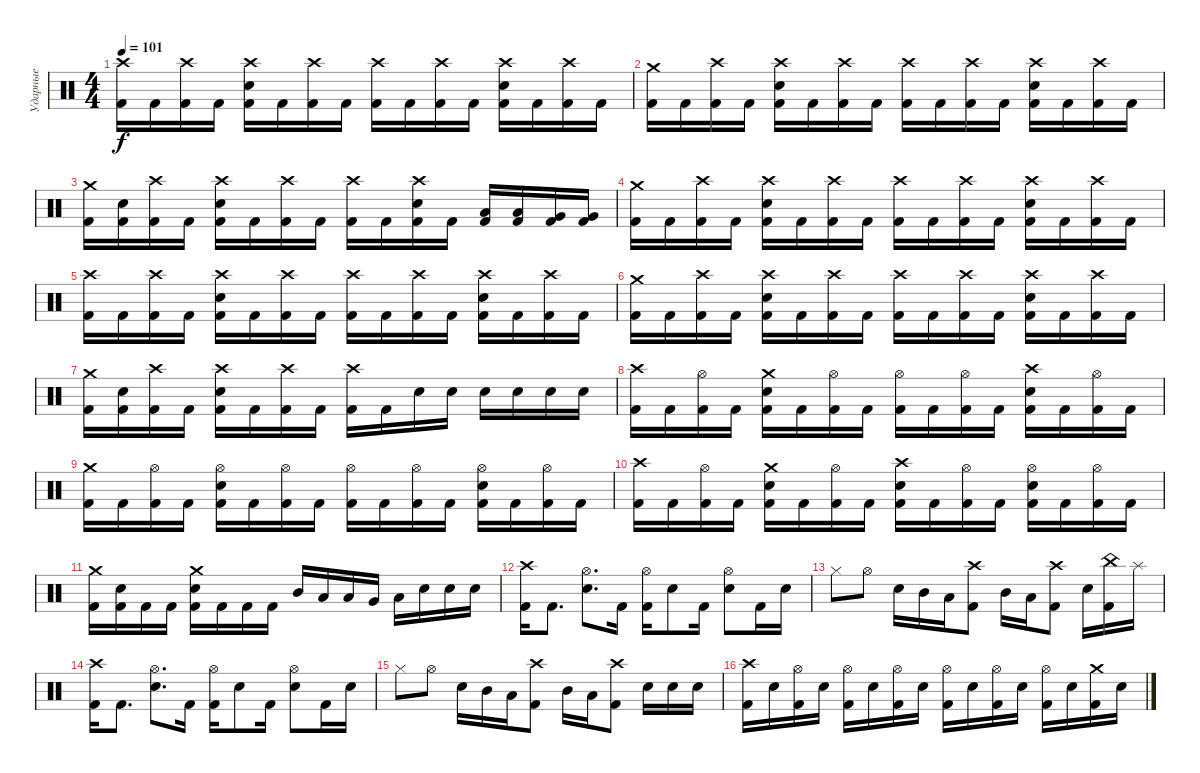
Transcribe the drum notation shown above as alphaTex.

\track ("Ударные" "Ударные") {instrument percussion}
\staff {score}
\articulation defaults
\ts (4 4)
\tempo 101
\clef neutral
\ks c
("Crash high (hit)" "Kick (hit) 2").16{dy f} "Kick (hit) 2".16 ("Crash high (hit)" "Kick (hit) 2").16 "Kick (hit) 2".16 ("Crash high (hit)" "Electric Snare (hit)" "Kick (hit) 2").16 "Kick (hit) 2".16 ("Crash high (hit)" "Kick (hit) 2").16 "Kick (hit) 2".16 ("Crash high (hit)" "Kick (hit) 2").16 "Kick (hit) 2".16 ("Crash high (hit)" "Kick (hit) 2").16 "Kick (hit) 2".16 ("Crash high (hit)" "Electric Snare (hit)" "Kick (hit) 2").16 "Kick (hit) 2".16 ("Crash high (hit)" "Kick (hit) 2").16 "Kick (hit) 2".16 |
("Crash medium (hit)" "Kick (hit) 2").16 "Kick (hit) 2".16 ("Crash high (hit)" "Kick (hit) 2").16 "Kick (hit) 2".16 ("Crash high (hit)" "Electric Snare (hit)" "Kick (hit) 2").16 "Kick (hit) 2".16 ("Crash high (hit)" "Kick (hit) 2").16 "Kick (hit) 2".16 ("Crash high (hit)" "Kick (hit) 2").16 "Kick (hit) 2".16 ("Crash high (hit)" "Kick (hit) 2").16 "Kick (hit) 2".16 ("Crash high (hit)" "Electric Snare (hit)" "Kick (hit) 2").16 "Kick (hit) 2".16 ("Crash high (hit)" "Kick (hit) 2").16 "Kick (hit) 2".16 |
("Crash medium (hit)" "Kick (hit) 2").16 ("Electric Snare (hit)" "Kick (hit) 2").16 ("Crash high (hit)" "Kick (hit) 2").16 "Kick (hit) 2".16 ("Crash high (hit)" "Electric Snare (hit)" "Kick (hit) 2").16 "Kick (hit) 2".16 ("Crash high (hit)" "Kick (hit) 2").16 "Kick (hit) 2".16 ("Crash high (hit)" "Kick (hit) 2").16 "Kick (hit) 2".16 ("Crash high (hit)" "Electric Snare (hit)" "Kick (hit) 2").16 "Kick (hit) 2".16 ("Low Tom (hit)" "Kick (hit) 2").16 ("Low Tom (hit)" "Kick (hit) 2").16 ("Very Low Tom (hit)" "Kick (hit) 2").16 ("Very Low Tom (hit)" "Kick (hit) 2").16 |
("Crash medium (hit)" "Kick (hit) 2").16 "Kick (hit) 2".16 ("Crash high (hit)" "Kick (hit) 2").16 "Kick (hit) 2".16 ("Crash high (hit)" "Electric Snare (hit)" "Kick (hit) 2").16 "Kick (hit) 2".16 ("Crash high (hit)" "Kick (hit) 2").16 "Kick (hit) 2".16 ("Crash high (hit)" "Kick (hit) 2").16 "Kick (hit) 2".16 ("Crash high (hit)" "Kick (hit) 2").16 "Kick (hit) 2".16 ("Crash high (hit)" "Electric Snare (hit)" "Kick (hit) 2").16 "Kick (hit) 2".16 ("Crash high (hit)" "Kick (hit) 2").16 "Kick (hit) 2".16 |
("Crash high (hit)" "Kick (hit) 2").16 "Kick (hit) 2".16 ("Crash high (hit)" "Kick (hit) 2").16 "Kick (hit) 2".16 ("Crash high (hit)" "Electric Snare (hit)" "Kick (hit) 2").16 "Kick (hit) 2".16 ("Crash high (hit)" "Kick (hit) 2").16 "Kick (hit) 2".16 ("Crash high (hit)" "Kick (hit) 2").16 "Kick (hit) 2".16 ("Crash high (hit)" "Kick (hit) 2").16 "Kick (hit) 2".16 ("Crash high (hit)" "Electric Snare (hit)" "Kick (hit) 2").16 "Kick (hit) 2".16 ("Crash high (hit)" "Kick (hit) 2").16 "Kick (hit) 2".16 |
("Crash medium (hit)" "Kick (hit) 2").16 "Kick (hit) 2".16 ("Crash high (hit)" "Kick (hit) 2").16 "Kick (hit) 2".16 ("Crash high (hit)" "Electric Snare (hit)" "Kick (hit) 2").16 "Kick (hit) 2".16 ("Crash high (hit)" "Kick (hit) 2").16 "Kick (hit) 2".16 ("Crash high (hit)" "Kick (hit) 2").16 "Kick (hit) 2".16 ("Crash high (hit)" "Kick (hit) 2").16 "Kick (hit) 2".16 ("Crash high (hit)" "Electric Snare (hit)" "Kick (hit) 2").16 "Kick (hit) 2".16 ("Crash high (hit)" "Kick (hit) 2").16 "Kick (hit) 2".16 |
("Crash medium (hit)" "Kick (hit) 2").16 ("Electric Snare (hit)" "Kick (hit) 2").16 ("Crash high (hit)" "Kick (hit) 2").16 "Kick (hit) 2".16 ("Crash high (hit)" "Electric Snare (hit)" "Kick (hit) 2").16 "Kick (hit) 2".16 ("Crash high (hit)" "Kick (hit) 2").16 "Kick (hit) 2".16 ("Crash high (hit)" "Kick (hit) 2").16 "Kick (hit) 2".16 "Electric Snare (hit)".16 "Electric Snare (hit)".16 "Electric Snare (hit)".16 "Electric Snare (hit)".16 "Electric Snare (hit)".16 "Electric Snare (hit)".16 |
("Crash high (hit)" "Kick (hit) 2").16 "Kick (hit) 2".16 ("Hi-Hat (open)" "Kick (hit) 2").16 "Kick (hit) 2".16 ("Crash medium (hit)" "Electric Snare (hit)" "Kick (hit) 2").16 "Kick (hit) 2".16 ("Hi-Hat (open)" "Kick (hit) 2").16 "Kick (hit) 2".16 ("Hi-Hat (open)" "Kick (hit) 2").16 "Kick (hit) 2".16 ("Hi-Hat (open)" "Kick (hit) 2").16 "Kick (hit) 2".16 ("Crash high (hit)" "Electric Snare (hit)" "Kick (hit) 2").16 "Kick (hit) 2".16 ("Hi-Hat (open)" "Kick (hit) 2").16 "Kick (hit) 2".16 |
("Crash medium (hit)" "Kick (hit) 2").16 "Kick (hit) 2".16 ("Hi-Hat (open)" "Kick (hit) 2").16 "Kick (hit) 2".16 ("Hi-Hat (open)" "Electric Snare (hit)" "Kick (hit) 2").16 "Kick (hit) 2".16 ("Hi-Hat (open)" "Kick (hit) 2").16 "Kick (hit) 2".16 ("Hi-Hat (open)" "Kick (hit) 2").16 "Kick (hit) 2".16 ("Hi-Hat (open)" "Kick (hit) 2").16 "Kick (hit) 2".16 ("Hi-Hat (open)" "Electric Snare (hit)" "Kick (hit) 2").16 "Kick (hit) 2".16 ("Hi-Hat (open)" "Kick (hit) 2").16 "Kick (hit) 2".16 |
("Crash high (hit)" "Kick (hit) 2").16 "Kick (hit) 2".16 ("Hi-Hat (open)" "Kick (hit) 2").16 "Kick (hit) 2".16 ("Crash medium (hit)" "Electric Snare (hit)" "Kick (hit) 2").16 "Kick (hit) 2".16 ("Hi-Hat (open)" "Kick (hit) 2").16 "Kick (hit) 2".16 ("Crash high (hit)" "Electric Snare (hit)" "Kick (hit) 2").16 "Kick (hit) 2".16 ("Hi-Hat (open)" "Kick (hit) 2").16 "Kick (hit) 2".16 ("Hi-Hat (open)" "Electric Snare (hit)" "Kick (hit) 2").16 "Kick (hit) 2".16 ("Hi-Hat (open)" "Kick (hit) 2").16 "Kick (hit) 2".16 |
("Crash medium (hit)" "Kick (hit) 2").16 ("Electric Snare (hit)" "Kick (hit) 2").16 "Kick (hit) 2".16 "Kick (hit) 2".16 ("Crash medium (hit)" "Electric Snare (hit)" "Kick (hit) 2").16 "Kick (hit) 2".16 "Kick (hit) 2".16 "Kick (hit) 2".16 "Mid Tom (hit)".16 "Low Tom (hit)".16 "Low Tom (hit)".16 "Very Low Tom (hit)".16 "Low Floor Tom (hit)".16 "Electric Snare (hit)".16 "Electric Snare (hit)".16 "Electric Snare (hit)".16 |
("Crash high (hit)" "Kick (hit) 2").16 "Kick (hit) 2".8{d} ("Hi-Hat (open)" "Electric Snare (hit)").8{d} "Kick (hit) 2".16 ("Hi-Hat (open)" "Kick (hit) 2").16 "Electric Snare (hit)".8 "Kick (hit) 2".16 ("Hi-Hat (open)" "Electric Snare (hit)").8 "Kick (hit) 2".16 "Electric Snare (hit)".16 |
"Hi-Hat (closed)".8 "Hi-Hat (open)".8 "Electric Snare (hit)".16 "Mid Tom (hit)".16 "Low Tom (hit)".16 ("Crash high (hit)" "Kick (hit) 2").8 "Mid Tom (hit)".16 "Low Tom (hit)".16 ("Crash high (hit)" "Kick (hit) 2").8 "Electric Snare (hit)".16 ("China (hit)" "Kick (hit) 2").16 "Splash (hit)".16 |
("Crash high (hit)" "Kick (hit) 2").16 "Kick (hit) 2".8{d} ("Hi-Hat (open)" "Electric Snare (hit)").8{d} "Kick (hit) 2".16 ("Hi-Hat (open)" "Kick (hit) 2").16 "Electric Snare (hit)".8 "Kick (hit) 2".16 ("Hi-Hat (open)" "Electric Snare (hit)").8 "Kick (hit) 2".16 "Electric Snare (hit)".16 |
"Hi-Hat (closed)".8 "Hi-Hat (open)".8 "Electric Snare (hit)".16 "Mid Tom (hit)".16 "Low Tom (hit)".16 ("Crash high (hit)" "Kick (hit) 2").8 "Mid Tom (hit)".16 "Low Tom (hit)".16 ("Crash high (hit)" "Kick (hit) 2").8 "Snare (hit) 2".16 "Snare (hit) 2".16 "Snare (hit) 2".16 |
("Crash high (hit)" "Kick (hit) 2").16 "Electric Snare (hit)".16 ("Hi-Hat (open)" "Kick (hit) 2").16 "Electric Snare (hit)".16 ("Hi-Hat (open)" "Kick (hit) 2").16 "Electric Snare (hit)".16 ("Hi-Hat (open)" "Kick (hit) 2").16 "Electric Snare (hit)".16 ("Hi-Hat (open)" "Kick (hit) 2").16 "Electric Snare (hit)".16 ("Hi-Hat (open)" "Kick (hit) 2").16 "Electric Snare (hit)".16 ("Hi-Hat (open)" "Kick (hit) 2").16 "Electric Snare (hit)".16 ("Crash medium (hit)" "Kick (hit) 2").16 "Electric Snare (hit)".16
